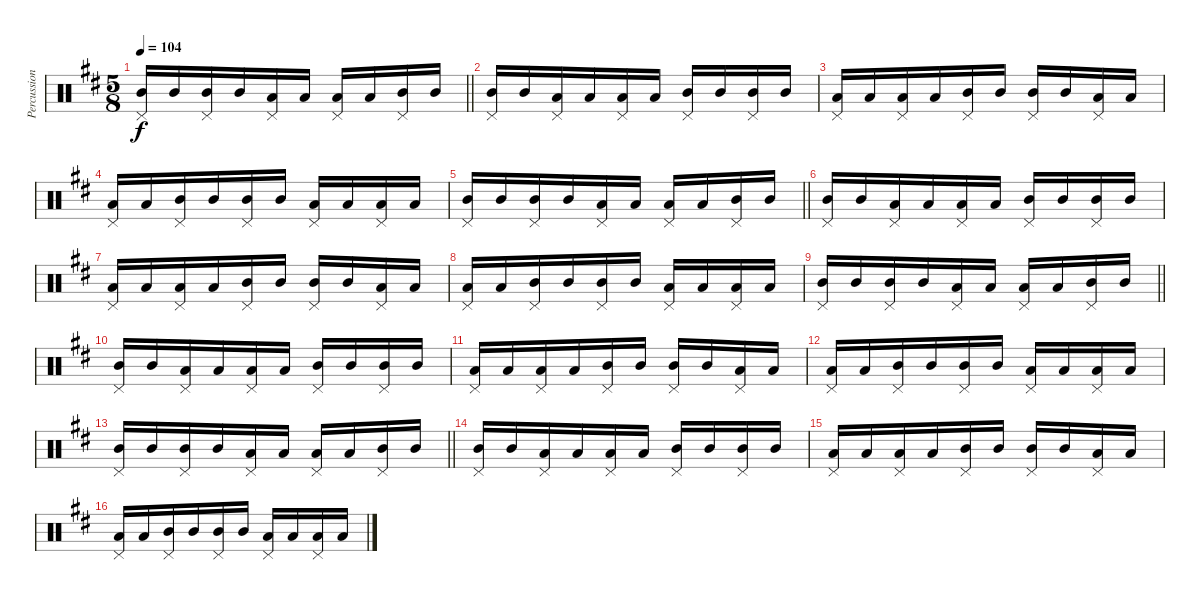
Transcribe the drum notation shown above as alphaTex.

\track ("Percussion" "Percussion") {instrument percussion}
\staff {score}
\articulation defaults
\ts (5 8)
\tempo 104
\clef neutral
\barLineRight lightlight
\ks d
("Pedal Hi-Hat (hit)" "Mid Tom (hit)").16{dy f} "Mid Tom (hit)".16 ("Pedal Hi-Hat (hit)" "Mid Tom (hit)").16 "Mid Tom (hit)".16 ("Pedal Hi-Hat (hit)" "Low Tom (hit)").16 "Low Tom (hit)".16 ("Pedal Hi-Hat (hit)" "Low Tom (hit)").16 "Low Tom (hit)".16 ("Pedal Hi-Hat (hit)" "Mid Tom (hit)").16 "Mid Tom (hit)".16 |
("Pedal Hi-Hat (hit)" "Mid Tom (hit)").16 "Mid Tom (hit)".16 ("Pedal Hi-Hat (hit)" "Low Tom (hit)").16 "Low Tom (hit)".16 ("Pedal Hi-Hat (hit)" "Low Tom (hit)").16 "Low Tom (hit)".16 ("Pedal Hi-Hat (hit)" "Mid Tom (hit)").16 "Mid Tom (hit)".16 ("Pedal Hi-Hat (hit)" "Mid Tom (hit)").16 "Mid Tom (hit)".16 |
("Pedal Hi-Hat (hit)" "Low Tom (hit)").16 "Low Tom (hit)".16 ("Pedal Hi-Hat (hit)" "Low Tom (hit)").16 "Low Tom (hit)".16 ("Pedal Hi-Hat (hit)" "Mid Tom (hit)").16 "Mid Tom (hit)".16 ("Pedal Hi-Hat (hit)" "Mid Tom (hit)").16 "Mid Tom (hit)".16 ("Pedal Hi-Hat (hit)" "Low Tom (hit)").16 "Low Tom (hit)".16 |
("Pedal Hi-Hat (hit)" "Low Tom (hit)").16 "Low Tom (hit)".16 ("Pedal Hi-Hat (hit)" "Mid Tom (hit)").16 "Mid Tom (hit)".16 ("Pedal Hi-Hat (hit)" "Mid Tom (hit)").16 "Mid Tom (hit)".16 ("Pedal Hi-Hat (hit)" "Low Tom (hit)").16 "Low Tom (hit)".16 ("Pedal Hi-Hat (hit)" "Low Tom (hit)").16 "Low Tom (hit)".16 |
\barLineRight lightlight
("Pedal Hi-Hat (hit)" "Mid Tom (hit)").16 "Mid Tom (hit)".16 ("Pedal Hi-Hat (hit)" "Mid Tom (hit)").16 "Mid Tom (hit)".16 ("Pedal Hi-Hat (hit)" "Low Tom (hit)").16 "Low Tom (hit)".16 ("Pedal Hi-Hat (hit)" "Low Tom (hit)").16 "Low Tom (hit)".16 ("Pedal Hi-Hat (hit)" "Mid Tom (hit)").16 "Mid Tom (hit)".16 |
("Pedal Hi-Hat (hit)" "Mid Tom (hit)").16 "Mid Tom (hit)".16 ("Pedal Hi-Hat (hit)" "Low Tom (hit)").16 "Low Tom (hit)".16 ("Pedal Hi-Hat (hit)" "Low Tom (hit)").16 "Low Tom (hit)".16 ("Pedal Hi-Hat (hit)" "Mid Tom (hit)").16 "Mid Tom (hit)".16 ("Pedal Hi-Hat (hit)" "Mid Tom (hit)").16 "Mid Tom (hit)".16 |
("Pedal Hi-Hat (hit)" "Low Tom (hit)").16 "Low Tom (hit)".16 ("Pedal Hi-Hat (hit)" "Low Tom (hit)").16 "Low Tom (hit)".16 ("Pedal Hi-Hat (hit)" "Mid Tom (hit)").16 "Mid Tom (hit)".16 ("Pedal Hi-Hat (hit)" "Mid Tom (hit)").16 "Mid Tom (hit)".16 ("Pedal Hi-Hat (hit)" "Low Tom (hit)").16 "Low Tom (hit)".16 |
("Pedal Hi-Hat (hit)" "Low Tom (hit)").16 "Low Tom (hit)".16 ("Pedal Hi-Hat (hit)" "Mid Tom (hit)").16 "Mid Tom (hit)".16 ("Pedal Hi-Hat (hit)" "Mid Tom (hit)").16 "Mid Tom (hit)".16 ("Pedal Hi-Hat (hit)" "Low Tom (hit)").16 "Low Tom (hit)".16 ("Pedal Hi-Hat (hit)" "Low Tom (hit)").16 "Low Tom (hit)".16 |
\barLineRight lightlight
("Pedal Hi-Hat (hit)" "Mid Tom (hit)").16 "Mid Tom (hit)".16 ("Pedal Hi-Hat (hit)" "Mid Tom (hit)").16 "Mid Tom (hit)".16 ("Pedal Hi-Hat (hit)" "Low Tom (hit)").16 "Low Tom (hit)".16 ("Pedal Hi-Hat (hit)" "Low Tom (hit)").16 "Low Tom (hit)".16 ("Pedal Hi-Hat (hit)" "Mid Tom (hit)").16 "Mid Tom (hit)".16 |
("Pedal Hi-Hat (hit)" "Mid Tom (hit)").16 "Mid Tom (hit)".16 ("Pedal Hi-Hat (hit)" "Low Tom (hit)").16 "Low Tom (hit)".16 ("Pedal Hi-Hat (hit)" "Low Tom (hit)").16 "Low Tom (hit)".16 ("Pedal Hi-Hat (hit)" "Mid Tom (hit)").16 "Mid Tom (hit)".16 ("Pedal Hi-Hat (hit)" "Mid Tom (hit)").16 "Mid Tom (hit)".16 |
("Pedal Hi-Hat (hit)" "Low Tom (hit)").16 "Low Tom (hit)".16 ("Pedal Hi-Hat (hit)" "Low Tom (hit)").16 "Low Tom (hit)".16 ("Pedal Hi-Hat (hit)" "Mid Tom (hit)").16 "Mid Tom (hit)".16 ("Pedal Hi-Hat (hit)" "Mid Tom (hit)").16 "Mid Tom (hit)".16 ("Pedal Hi-Hat (hit)" "Low Tom (hit)").16 "Low Tom (hit)".16 |
("Pedal Hi-Hat (hit)" "Low Tom (hit)").16 "Low Tom (hit)".16 ("Pedal Hi-Hat (hit)" "Mid Tom (hit)").16 "Mid Tom (hit)".16 ("Pedal Hi-Hat (hit)" "Mid Tom (hit)").16 "Mid Tom (hit)".16 ("Pedal Hi-Hat (hit)" "Low Tom (hit)").16 "Low Tom (hit)".16 ("Pedal Hi-Hat (hit)" "Low Tom (hit)").16 "Low Tom (hit)".16 |
\barLineRight lightlight
("Pedal Hi-Hat (hit)" "Mid Tom (hit)").16 "Mid Tom (hit)".16 ("Pedal Hi-Hat (hit)" "Mid Tom (hit)").16 "Mid Tom (hit)".16 ("Pedal Hi-Hat (hit)" "Low Tom (hit)").16 "Low Tom (hit)".16 ("Pedal Hi-Hat (hit)" "Low Tom (hit)").16 "Low Tom (hit)".16 ("Pedal Hi-Hat (hit)" "Mid Tom (hit)").16 "Mid Tom (hit)".16 |
("Pedal Hi-Hat (hit)" "Mid Tom (hit)").16 "Mid Tom (hit)".16 ("Pedal Hi-Hat (hit)" "Low Tom (hit)").16 "Low Tom (hit)".16 ("Pedal Hi-Hat (hit)" "Low Tom (hit)").16 "Low Tom (hit)".16 ("Pedal Hi-Hat (hit)" "Mid Tom (hit)").16 "Mid Tom (hit)".16 ("Pedal Hi-Hat (hit)" "Mid Tom (hit)").16 "Mid Tom (hit)".16 |
("Pedal Hi-Hat (hit)" "Low Tom (hit)").16 "Low Tom (hit)".16 ("Pedal Hi-Hat (hit)" "Low Tom (hit)").16 "Low Tom (hit)".16 ("Pedal Hi-Hat (hit)" "Mid Tom (hit)").16 "Mid Tom (hit)".16 ("Pedal Hi-Hat (hit)" "Mid Tom (hit)").16 "Mid Tom (hit)".16 ("Pedal Hi-Hat (hit)" "Low Tom (hit)").16 "Low Tom (hit)".16 |
("Pedal Hi-Hat (hit)" "Low Tom (hit)").16 "Low Tom (hit)".16 ("Pedal Hi-Hat (hit)" "Mid Tom (hit)").16 "Mid Tom (hit)".16 ("Pedal Hi-Hat (hit)" "Mid Tom (hit)").16 "Mid Tom (hit)".16 ("Pedal Hi-Hat (hit)" "Low Tom (hit)").16 "Low Tom (hit)".16 ("Pedal Hi-Hat (hit)" "Low Tom (hit)").16 "Low Tom (hit)".16
